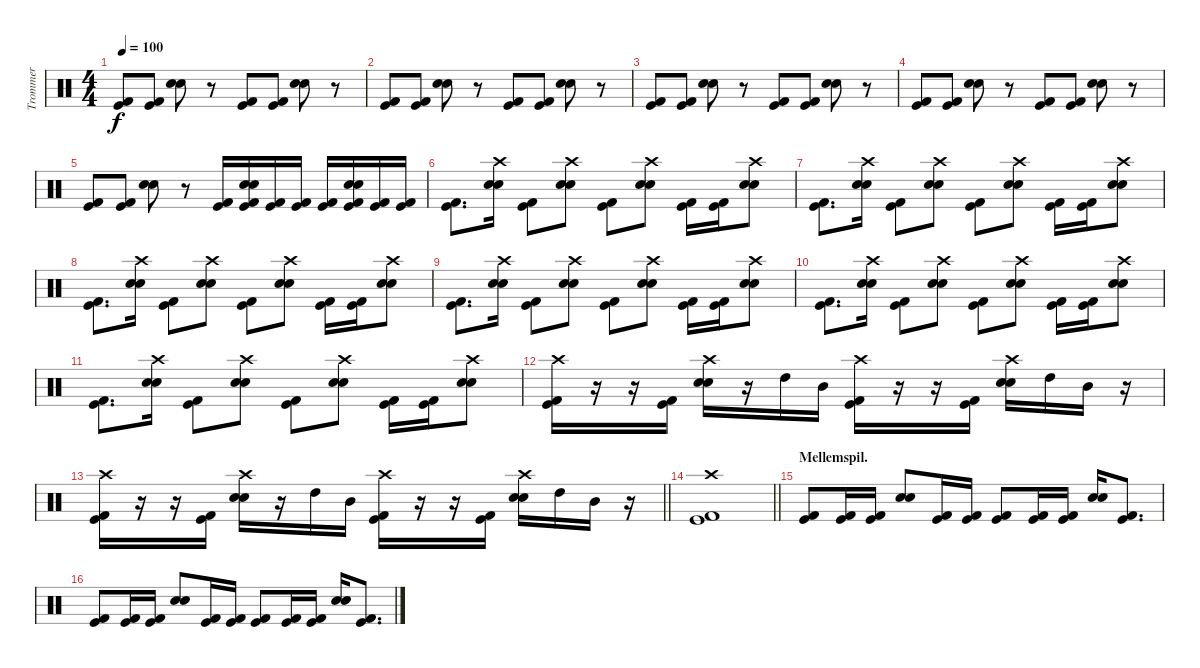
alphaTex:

\track ("Trommer" "Trommer") {instrument percussion}
\staff {score}
\articulation defaults
\ts (4 4)
\tempo 100
\clef neutral
\ks c
("Kick (hit)" "Kick (hit) 2").8{dy f} ("Kick (hit)" "Kick (hit) 2").8 ("Snare (hit) 2" "Electric Snare (hit)").8 r.8 ("Kick (hit)" "Kick (hit) 2").8 ("Kick (hit)" "Kick (hit) 2").8 ("Snare (hit) 2" "Electric Snare (hit)").8 r.8 |
("Kick (hit)" "Kick (hit) 2").8 ("Kick (hit)" "Kick (hit) 2").8 ("Snare (hit) 2" "Electric Snare (hit)").8 r.8 ("Kick (hit)" "Kick (hit) 2").8 ("Kick (hit)" "Kick (hit) 2").8 ("Snare (hit) 2" "Electric Snare (hit)").8 r.8 |
("Kick (hit)" "Kick (hit) 2").8 ("Kick (hit)" "Kick (hit) 2").8 ("Snare (hit) 2" "Electric Snare (hit)").8 r.8 ("Kick (hit)" "Kick (hit) 2").8 ("Kick (hit)" "Kick (hit) 2").8 ("Snare (hit) 2" "Electric Snare (hit)").8 r.8 |
("Kick (hit)" "Kick (hit) 2").8 ("Kick (hit)" "Kick (hit) 2").8 ("Snare (hit) 2" "Electric Snare (hit)").8 r.8 ("Kick (hit)" "Kick (hit) 2").8 ("Kick (hit)" "Kick (hit) 2").8 ("Snare (hit) 2" "Electric Snare (hit)").8 r.8 |
("Kick (hit)" "Kick (hit) 2").8 ("Kick (hit)" "Kick (hit) 2").8 ("Snare (hit) 2" "Electric Snare (hit)").8 r.8 ("Kick (hit)" "Kick (hit) 2").16 ("Kick (hit)" "Snare (hit) 2" "Electric Snare (hit)" "Kick (hit) 2").16 ("Kick (hit)" "Kick (hit) 2").16 ("Kick (hit)" "Kick (hit) 2").16 ("Kick (hit)" "Kick (hit) 2").16 ("Kick (hit)" "Snare (hit) 2" "Electric Snare (hit)" "Kick (hit) 2").16 ("Kick (hit)" "Kick (hit) 2").16 ("Kick (hit)" "Kick (hit) 2").16 |
("Kick (hit)" "Kick (hit) 2").8{d} ("Crash high (hit)" "Snare (hit) 2" "Electric Snare (hit)").16 ("Kick (hit)" "Kick (hit) 2").8 ("Crash high (hit)" "Snare (hit) 2" "Electric Snare (hit)").8 ("Kick (hit)" "Kick (hit) 2").8 ("Crash high (hit)" "Electric Snare (hit)" "Snare (hit) 2").8 ("Kick (hit)" "Kick (hit) 2").16 ("Kick (hit)" "Kick (hit) 2").16 ("Crash high (hit)" "Snare (hit) 2" "Electric Snare (hit)").8 |
("Kick (hit)" "Kick (hit) 2").8{d} ("Crash high (hit)" "Snare (hit) 2" "Electric Snare (hit)").16 ("Kick (hit)" "Kick (hit) 2").8 ("Crash high (hit)" "Snare (hit) 2" "Electric Snare (hit)").8 ("Kick (hit)" "Kick (hit) 2").8 ("Crash high (hit)" "Electric Snare (hit)" "Snare (hit) 2").8 ("Kick (hit)" "Kick (hit) 2").16 ("Kick (hit)" "Kick (hit) 2").16 ("Crash high (hit)" "Snare (hit) 2" "Electric Snare (hit)").8 |
("Kick (hit)" "Kick (hit) 2").8{d} ("Crash high (hit)" "Snare (hit) 2" "Electric Snare (hit)").16 ("Kick (hit)" "Kick (hit) 2").8 ("Crash high (hit)" "Snare (hit) 2" "Electric Snare (hit)").8 ("Kick (hit)" "Kick (hit) 2").8 ("Crash high (hit)" "Electric Snare (hit)" "Snare (hit) 2").8 ("Kick (hit)" "Kick (hit) 2").16 ("Kick (hit)" "Kick (hit) 2").16 ("Crash high (hit)" "Snare (hit) 2" "Electric Snare (hit)").8 |
("Kick (hit)" "Kick (hit) 2").8{d} ("Crash high (hit)" "Snare (hit) 2" "Electric Snare (hit)").16 ("Kick (hit)" "Kick (hit) 2").8 ("Crash high (hit)" "Snare (hit) 2" "Electric Snare (hit)").8 ("Kick (hit)" "Kick (hit) 2").8 ("Crash high (hit)" "Electric Snare (hit)" "Snare (hit) 2").8 ("Kick (hit)" "Kick (hit) 2").16 ("Kick (hit)" "Kick (hit) 2").16 ("Crash high (hit)" "Snare (hit) 2" "Electric Snare (hit)").8 |
("Kick (hit)" "Kick (hit) 2").8{d} ("Crash high (hit)" "Snare (hit) 2" "Electric Snare (hit)").16 ("Kick (hit)" "Kick (hit) 2").8 ("Crash high (hit)" "Snare (hit) 2" "Electric Snare (hit)").8 ("Kick (hit)" "Kick (hit) 2").8 ("Crash high (hit)" "Electric Snare (hit)" "Snare (hit) 2").8 ("Kick (hit)" "Kick (hit) 2").16 ("Kick (hit)" "Kick (hit) 2").16 ("Crash high (hit)" "Snare (hit) 2" "Electric Snare (hit)").8 |
("Kick (hit)" "Kick (hit) 2").8{d} ("Crash high (hit)" "Snare (hit) 2" "Electric Snare (hit)").16 ("Kick (hit)" "Kick (hit) 2").8 ("Crash high (hit)" "Snare (hit) 2" "Electric Snare (hit)").8 ("Kick (hit)" "Kick (hit) 2").8 ("Crash high (hit)" "Electric Snare (hit)" "Snare (hit) 2").8 ("Kick (hit)" "Kick (hit) 2").16 ("Kick (hit)" "Kick (hit) 2").16 ("Crash high (hit)" "Snare (hit) 2" "Electric Snare (hit)").8 |
("Crash high (hit)" "Kick (hit)" "Kick (hit) 2").16 r.16 r.16 ("Kick (hit)" "Kick (hit) 2").16 ("Crash high (hit)" "Snare (hit) 2" "Electric Snare (hit)").16 r.16 "High Tom (hit)".16 "Mid Tom (hit)".16 ("Crash high (hit)" "Kick (hit)" "Kick (hit) 2").16 r.16 r.16 ("Kick (hit)" "Kick (hit) 2").16 ("Crash high (hit)" "Snare (hit) 2" "Electric Snare (hit)").16 "High Tom (hit)".16 "Mid Tom (hit)".16 r.16 |
\barLineRight lightlight
("Crash high (hit)" "Kick (hit)" "Kick (hit) 2").16 r.16 r.16 ("Kick (hit)" "Kick (hit) 2").16 ("Crash high (hit)" "Snare (hit) 2" "Electric Snare (hit)").16 r.16 "High Tom (hit)".16 "Mid Tom (hit)".16 ("Crash high (hit)" "Kick (hit)" "Kick (hit) 2").16 r.16 r.16 ("Kick (hit)" "Kick (hit) 2").16 ("Crash high (hit)" "Snare (hit) 2" "Electric Snare (hit)").16 "High Tom (hit)".16 "Mid Tom (hit)".16 r.16 |
\barLineRight lightlight
("Crash high (hit)" "Kick (hit)" "Kick (hit) 2").1 |
\section ("" "Mellemspil.")
("Kick (hit)" "Kick (hit) 2").8 ("Kick (hit)" "Kick (hit) 2").16 ("Kick (hit)" "Kick (hit) 2").16 ("Snare (hit) 2" "Electric Snare (hit)").8 ("Kick (hit)" "Kick (hit) 2").16 ("Kick (hit)" "Kick (hit) 2").16 ("Kick (hit)" "Kick (hit) 2").8 ("Kick (hit)" "Kick (hit) 2").16 ("Kick (hit)" "Kick (hit) 2").16 ("Snare (hit) 2" "Electric Snare (hit)").16 ("Kick (hit)" "Kick (hit) 2").8{d} |
("Kick (hit)" "Kick (hit) 2").8 ("Kick (hit)" "Kick (hit) 2").16 ("Kick (hit)" "Kick (hit) 2").16 ("Snare (hit) 2" "Electric Snare (hit)").8 ("Kick (hit)" "Kick (hit) 2").16 ("Kick (hit)" "Kick (hit) 2").16 ("Kick (hit)" "Kick (hit) 2").8 ("Kick (hit)" "Kick (hit) 2").16 ("Kick (hit)" "Kick (hit) 2").16 ("Snare (hit) 2" "Electric Snare (hit)").16 ("Kick (hit)" "Kick (hit) 2").8{d}
